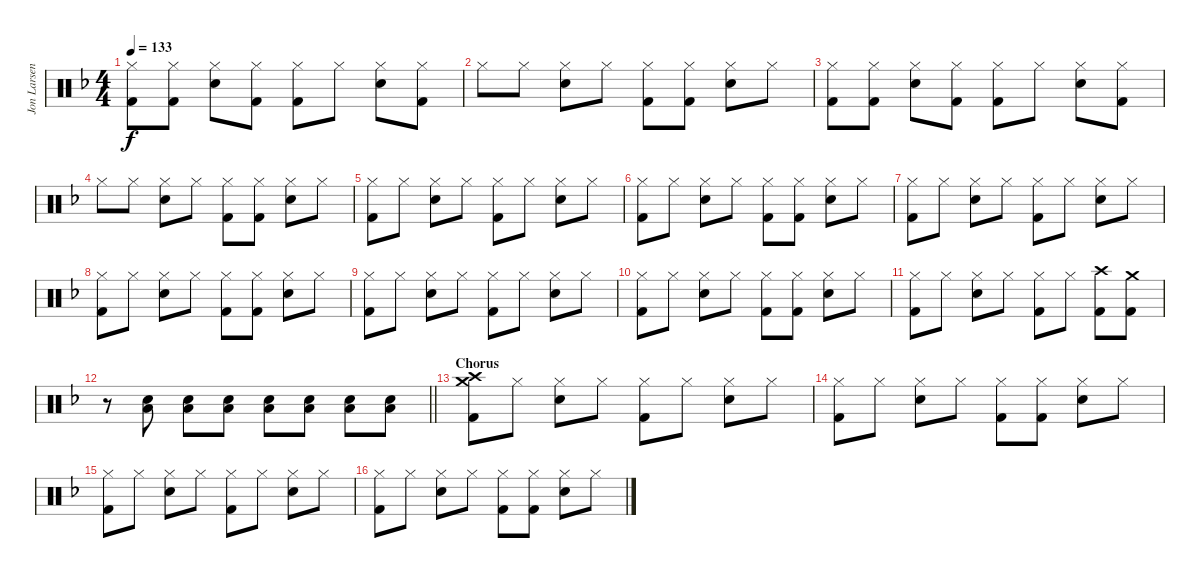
\track ("Jon Larsen" "Jon Larsen") {instrument percussion}
\staff {score}
\articulation defaults
\ts (4 4)
\tempo 133
\clef neutral
\ks f
("Hi-Hat (closed)" "Kick (hit) 2").8{dy f} ("Hi-Hat (closed)" "Kick (hit) 2").8 ("Hi-Hat (closed)" "Electric Snare (hit)").8 ("Hi-Hat (closed)" "Kick (hit) 2").8 ("Hi-Hat (closed)" "Kick (hit) 2").8 "Hi-Hat (closed)".8 ("Hi-Hat (closed)" "Electric Snare (hit)").8 ("Hi-Hat (closed)" "Kick (hit) 2").8 |
"Hi-Hat (closed)".8 "Hi-Hat (closed)".8 ("Hi-Hat (closed)" "Electric Snare (hit)").8 "Hi-Hat (closed)".8 ("Hi-Hat (closed)" "Kick (hit) 2").8 ("Hi-Hat (closed)" "Kick (hit) 2").8 ("Hi-Hat (closed)" "Electric Snare (hit)").8 "Hi-Hat (closed)".8 |
("Hi-Hat (closed)" "Kick (hit) 2").8 ("Hi-Hat (closed)" "Kick (hit) 2").8 ("Hi-Hat (closed)" "Electric Snare (hit)").8 ("Hi-Hat (closed)" "Kick (hit) 2").8 ("Hi-Hat (closed)" "Kick (hit) 2").8 "Hi-Hat (closed)".8 ("Hi-Hat (closed)" "Electric Snare (hit)").8 ("Hi-Hat (closed)" "Kick (hit) 2").8 |
"Hi-Hat (closed)".8 "Hi-Hat (closed)".8 ("Hi-Hat (closed)" "Electric Snare (hit)").8 "Hi-Hat (closed)".8 ("Hi-Hat (closed)" "Kick (hit) 2").8 ("Hi-Hat (closed)" "Kick (hit) 2").8 ("Hi-Hat (closed)" "Electric Snare (hit)").8 "Hi-Hat (closed)".8 |
("Hi-Hat (closed)" "Kick (hit) 2").8 "Hi-Hat (closed)".8 ("Hi-Hat (closed)" "Electric Snare (hit)").8 "Hi-Hat (closed)".8 ("Hi-Hat (closed)" "Kick (hit) 2").8 "Hi-Hat (closed)".8 ("Hi-Hat (closed)" "Electric Snare (hit)").8 "Hi-Hat (closed)".8 |
("Hi-Hat (closed)" "Kick (hit) 2").8 "Hi-Hat (closed)".8 ("Hi-Hat (closed)" "Electric Snare (hit)").8 "Hi-Hat (closed)".8 ("Hi-Hat (closed)" "Kick (hit) 2").8 ("Hi-Hat (closed)" "Kick (hit) 2").8 ("Hi-Hat (closed)" "Electric Snare (hit)").8 "Hi-Hat (closed)".8 |
("Hi-Hat (closed)" "Kick (hit) 2").8 "Hi-Hat (closed)".8 ("Hi-Hat (closed)" "Electric Snare (hit)").8 "Hi-Hat (closed)".8 ("Hi-Hat (closed)" "Kick (hit) 2").8 "Hi-Hat (closed)".8 ("Hi-Hat (closed)" "Electric Snare (hit)").8 "Hi-Hat (closed)".8 |
("Hi-Hat (closed)" "Kick (hit) 2").8 "Hi-Hat (closed)".8 ("Hi-Hat (closed)" "Electric Snare (hit)").8 "Hi-Hat (closed)".8 ("Hi-Hat (closed)" "Kick (hit) 2").8 ("Hi-Hat (closed)" "Kick (hit) 2").8 ("Hi-Hat (closed)" "Electric Snare (hit)").8 "Hi-Hat (closed)".8 |
("Hi-Hat (closed)" "Kick (hit) 2").8 "Hi-Hat (closed)".8 ("Hi-Hat (closed)" "Electric Snare (hit)").8 "Hi-Hat (closed)".8 ("Hi-Hat (closed)" "Kick (hit) 2").8 "Hi-Hat (closed)".8 ("Hi-Hat (closed)" "Electric Snare (hit)").8 "Hi-Hat (closed)".8 |
("Hi-Hat (closed)" "Kick (hit) 2").8 "Hi-Hat (closed)".8 ("Hi-Hat (closed)" "Electric Snare (hit)").8 "Hi-Hat (closed)".8 ("Hi-Hat (closed)" "Kick (hit) 2").8 ("Hi-Hat (closed)" "Kick (hit) 2").8 ("Hi-Hat (closed)" "Electric Snare (hit)").8 "Hi-Hat (closed)".8 |
("Hi-Hat (closed)" "Kick (hit) 2").8 "Hi-Hat (closed)".8 ("Hi-Hat (closed)" "Electric Snare (hit)").8 "Hi-Hat (closed)".8 ("Hi-Hat (closed)" "Kick (hit) 2").8 "Hi-Hat (closed)".8 ("Crash high (hit)" "Kick (hit) 2").8 ("Crash medium (hit)" "Kick (hit) 2").8 |
\barLineRight lightlight
r.8 ("Low Tom (hit)" "Electric Snare (hit)").8 ("Low Tom (hit)" "Electric Snare (hit)").8 ("Low Tom (hit)" "Electric Snare (hit)").8 ("Low Tom (hit)" "Electric Snare (hit)").8 ("Low Tom (hit)" "Electric Snare (hit)").8 ("Low Tom (hit)" "Electric Snare (hit)").8 ("Low Tom (hit)" "Electric Snare (hit)").8 |
\section ("" "Chorus")
("Crash medium (hit)" "Crash high (hit)" "Kick (hit) 2").8 "Hi-Hat (closed)".8 ("Hi-Hat (closed)" "Electric Snare (hit)").8 "Hi-Hat (closed)".8 ("Hi-Hat (closed)" "Kick (hit) 2").8 "Hi-Hat (closed)".8 ("Hi-Hat (closed)" "Electric Snare (hit)").8 "Hi-Hat (closed)".8 |
("Hi-Hat (closed)" "Kick (hit) 2").8 "Hi-Hat (closed)".8 ("Hi-Hat (closed)" "Electric Snare (hit)").8 "Hi-Hat (closed)".8 ("Hi-Hat (closed)" "Kick (hit) 2").8 ("Hi-Hat (closed)" "Kick (hit) 2").8 ("Hi-Hat (closed)" "Electric Snare (hit)").8 "Hi-Hat (closed)".8 |
("Hi-Hat (closed)" "Kick (hit) 2").8 "Hi-Hat (closed)".8 ("Hi-Hat (closed)" "Electric Snare (hit)").8 "Hi-Hat (closed)".8 ("Hi-Hat (closed)" "Kick (hit) 2").8 "Hi-Hat (closed)".8 ("Hi-Hat (closed)" "Electric Snare (hit)").8 "Hi-Hat (closed)".8 |
("Hi-Hat (closed)" "Kick (hit) 2").8 "Hi-Hat (closed)".8 ("Hi-Hat (closed)" "Electric Snare (hit)").8 "Hi-Hat (closed)".8 ("Hi-Hat (closed)" "Kick (hit) 2").8 ("Hi-Hat (closed)" "Kick (hit) 2").8 ("Hi-Hat (closed)" "Electric Snare (hit)").8 "Hi-Hat (closed)".8
